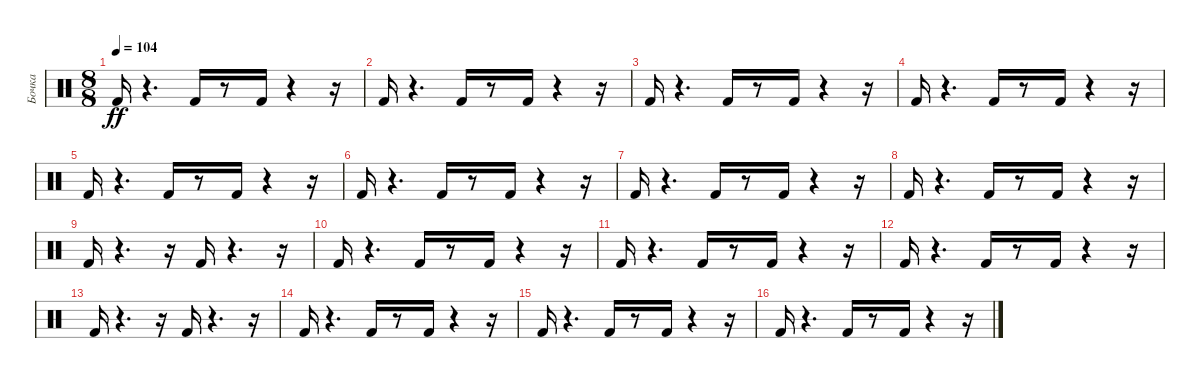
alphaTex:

\track ("Бочка" "Бочка") {instrument percussion}
\staff {score}
\articulation defaults
\ts (8 8)
\tempo 104
\clef neutral
\ks c "Kick (hit) 2".16{dy ff}
r.4{d} "Kick (hit) 2".16 r.8 "Kick (hit) 2".16 r.4 r.16 |
"Kick (hit) 2".16 r.4{d} "Kick (hit) 2".16 r.8 "Kick (hit) 2".16 r.4 r.16 |
"Kick (hit) 2".16 r.4{d} "Kick (hit) 2".16 r.8 "Kick (hit) 2".16 r.4 r.16 |
"Kick (hit) 2".16 r.4{d} "Kick (hit) 2".16 r.8 "Kick (hit) 2".16 r.4 r.16 |
"Kick (hit) 2".16 r.4{d} "Kick (hit) 2".16 r.8 "Kick (hit) 2".16 r.4 r.16 |
"Kick (hit) 2".16 r.4{d} "Kick (hit) 2".16 r.8 "Kick (hit) 2".16 r.4 r.16 |
"Kick (hit) 2".16 r.4{d} "Kick (hit) 2".16 r.8 "Kick (hit) 2".16 r.4 r.16 |
"Kick (hit) 2".16 r.4{d} "Kick (hit) 2".16 r.8 "Kick (hit) 2".16 r.4 r.16 |
"Kick (hit) 2".16 r.4{d} r.16 "Kick (hit) 2".16 r.4{d} r.16 |
"Kick (hit) 2".16 r.4{d} "Kick (hit) 2".16 r.8 "Kick (hit) 2".16 r.4 r.16 |
"Kick (hit) 2".16 r.4{d} "Kick (hit) 2".16 r.8 "Kick (hit) 2".16 r.4 r.16 |
"Kick (hit) 2".16 r.4{d} "Kick (hit) 2".16 r.8 "Kick (hit) 2".16 r.4 r.16 |
"Kick (hit) 2".16 r.4{d} r.16 "Kick (hit) 2".16 r.4{d} r.16 |
"Kick (hit) 2".16 r.4{d} "Kick (hit) 2".16 r.8 "Kick (hit) 2".16 r.4 r.16 |
"Kick (hit) 2".16 r.4{d} "Kick (hit) 2".16 r.8 "Kick (hit) 2".16 r.4 r.16 |
"Kick (hit) 2".16 r.4{d} "Kick (hit) 2".16 r.8 "Kick (hit) 2".16 r.4 r.16
